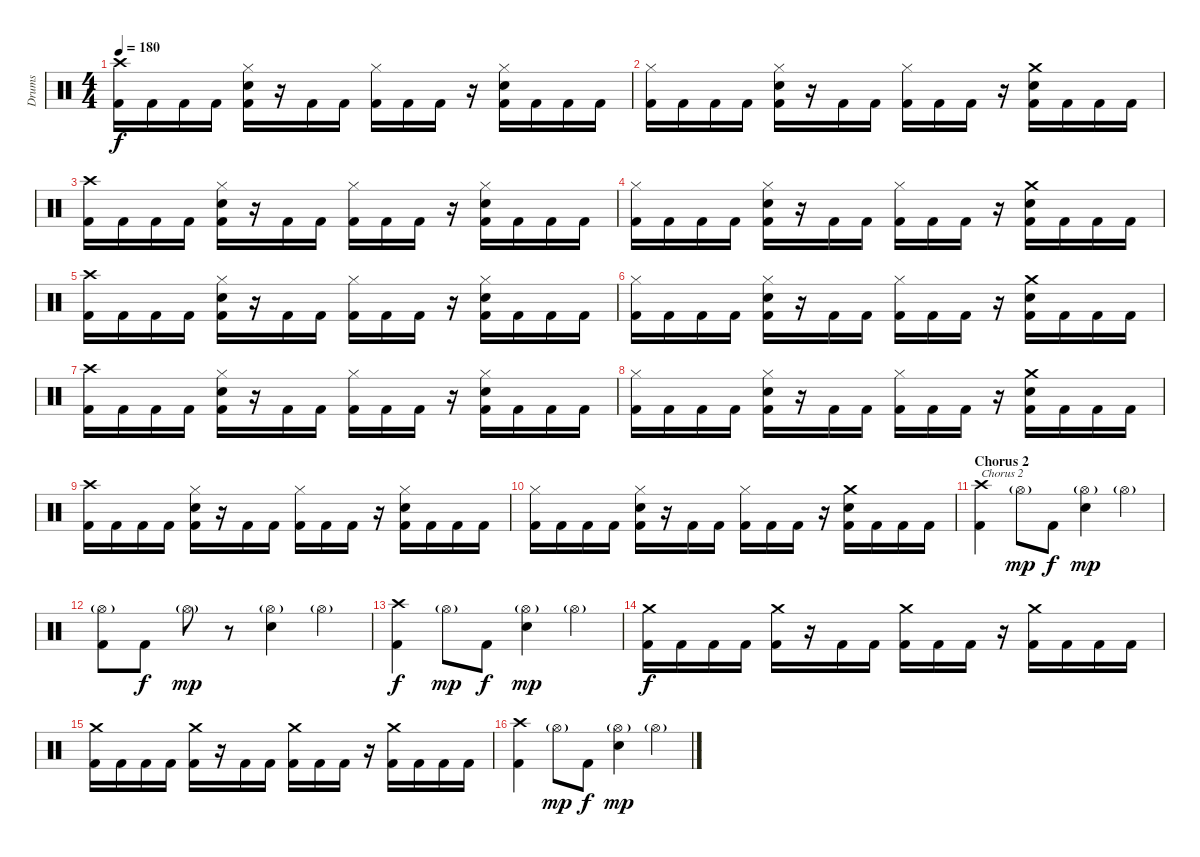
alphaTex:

\track ("Drums" "Drums") {instrument percussion}
\staff {score}
\articulation defaults
\ts (4 4)
\tempo 180
\clef neutral
\ks c
("Kick (hit) 2" "Crash high (hit)").16{dy f} "Kick (hit) 2".16 "Kick (hit) 2".16 "Kick (hit) 2".16 ("Kick (hit) 2" "Snare (hit) 2" "Hi-Hat (closed)").16 r.16 "Kick (hit) 2".16 "Kick (hit) 2".16 ("Kick (hit) 2" "Hi-Hat (closed)").16 "Kick (hit) 2".16 "Kick (hit) 2".16 r.16 ("Kick (hit) 2" "Snare (hit) 2" "Hi-Hat (closed)").16 "Kick (hit) 2".16 "Kick (hit) 2".16 "Kick (hit) 2".16 |
("Kick (hit) 2" "Hi-Hat (closed)").16 "Kick (hit) 2".16 "Kick (hit) 2".16 "Kick (hit) 2".16 ("Kick (hit) 2" "Snare (hit) 2" "Hi-Hat (closed)").16 r.16 "Kick (hit) 2".16 "Kick (hit) 2".16 ("Kick (hit) 2" "Hi-Hat (closed)").16 "Kick (hit) 2".16 "Kick (hit) 2".16 r.16 ("Kick (hit) 2" "Snare (hit) 2" "Crash medium (hit)").16 "Kick (hit) 2".16 "Kick (hit) 2".16 "Kick (hit) 2".16 |
("Kick (hit) 2" "Crash high (hit)").16 "Kick (hit) 2".16 "Kick (hit) 2".16 "Kick (hit) 2".16 ("Kick (hit) 2" "Snare (hit) 2" "Hi-Hat (closed)").16 r.16 "Kick (hit) 2".16 "Kick (hit) 2".16 ("Kick (hit) 2" "Hi-Hat (closed)").16 "Kick (hit) 2".16 "Kick (hit) 2".16 r.16 ("Kick (hit) 2" "Snare (hit) 2" "Hi-Hat (closed)").16 "Kick (hit) 2".16 "Kick (hit) 2".16 "Kick (hit) 2".16 |
("Kick (hit) 2" "Hi-Hat (closed)").16 "Kick (hit) 2".16 "Kick (hit) 2".16 "Kick (hit) 2".16 ("Kick (hit) 2" "Snare (hit) 2" "Hi-Hat (closed)").16 r.16 "Kick (hit) 2".16 "Kick (hit) 2".16 ("Kick (hit) 2" "Hi-Hat (closed)").16 "Kick (hit) 2".16 "Kick (hit) 2".16 r.16 ("Kick (hit) 2" "Snare (hit) 2" "Crash medium (hit)").16 "Kick (hit) 2".16 "Kick (hit) 2".16 "Kick (hit) 2".16 |
("Kick (hit) 2" "Crash high (hit)").16 "Kick (hit) 2".16 "Kick (hit) 2".16 "Kick (hit) 2".16 ("Kick (hit) 2" "Snare (hit) 2" "Hi-Hat (closed)").16 r.16 "Kick (hit) 2".16 "Kick (hit) 2".16 ("Kick (hit) 2" "Hi-Hat (closed)").16 "Kick (hit) 2".16 "Kick (hit) 2".16 r.16 ("Kick (hit) 2" "Snare (hit) 2" "Hi-Hat (closed)").16 "Kick (hit) 2".16 "Kick (hit) 2".16 "Kick (hit) 2".16 |
("Kick (hit) 2" "Hi-Hat (closed)").16 "Kick (hit) 2".16 "Kick (hit) 2".16 "Kick (hit) 2".16 ("Kick (hit) 2" "Snare (hit) 2" "Hi-Hat (closed)").16 r.16 "Kick (hit) 2".16 "Kick (hit) 2".16 ("Kick (hit) 2" "Hi-Hat (closed)").16 "Kick (hit) 2".16 "Kick (hit) 2".16 r.16 ("Kick (hit) 2" "Snare (hit) 2" "Crash medium (hit)").16 "Kick (hit) 2".16 "Kick (hit) 2".16 "Kick (hit) 2".16 |
("Kick (hit) 2" "Crash high (hit)").16 "Kick (hit) 2".16 "Kick (hit) 2".16 "Kick (hit) 2".16 ("Kick (hit) 2" "Snare (hit) 2" "Hi-Hat (closed)").16 r.16 "Kick (hit) 2".16 "Kick (hit) 2".16 ("Kick (hit) 2" "Hi-Hat (closed)").16 "Kick (hit) 2".16 "Kick (hit) 2".16 r.16 ("Kick (hit) 2" "Snare (hit) 2" "Hi-Hat (closed)").16 "Kick (hit) 2".16 "Kick (hit) 2".16 "Kick (hit) 2".16 |
("Kick (hit) 2" "Hi-Hat (closed)").16 "Kick (hit) 2".16 "Kick (hit) 2".16 "Kick (hit) 2".16 ("Kick (hit) 2" "Snare (hit) 2" "Hi-Hat (closed)").16 r.16 "Kick (hit) 2".16 "Kick (hit) 2".16 ("Kick (hit) 2" "Hi-Hat (closed)").16 "Kick (hit) 2".16 "Kick (hit) 2".16 r.16 ("Kick (hit) 2" "Snare (hit) 2" "Crash medium (hit)").16 "Kick (hit) 2".16 "Kick (hit) 2".16 "Kick (hit) 2".16 |
("Kick (hit) 2" "Crash high (hit)").16 "Kick (hit) 2".16 "Kick (hit) 2".16 "Kick (hit) 2".16 ("Kick (hit) 2" "Snare (hit) 2" "Hi-Hat (closed)").16 r.16 "Kick (hit) 2".16 "Kick (hit) 2".16 ("Kick (hit) 2" "Hi-Hat (closed)").16 "Kick (hit) 2".16 "Kick (hit) 2".16 r.16 ("Kick (hit) 2" "Snare (hit) 2" "Hi-Hat (closed)").16 "Kick (hit) 2".16 "Kick (hit) 2".16 "Kick (hit) 2".16 |
("Kick (hit) 2" "Hi-Hat (closed)").16 "Kick (hit) 2".16 "Kick (hit) 2".16 "Kick (hit) 2".16 ("Kick (hit) 2" "Snare (hit) 2" "Hi-Hat (closed)").16 r.16 "Kick (hit) 2".16 "Kick (hit) 2".16 ("Kick (hit) 2" "Hi-Hat (closed)").16 "Kick (hit) 2".16 "Kick (hit) 2".16 r.16 ("Kick (hit) 2" "Snare (hit) 2" "Crash medium (hit)").16 "Kick (hit) 2".16 "Kick (hit) 2".16 "Kick (hit) 2".16 |
\section ("" "Chorus 2")
("Kick (hit) 2" "Crash high (hit)").4{txt "Chorus 2"} "Hi-Hat (open)"{g}.8{dy mp} "Kick (hit) 2".8{dy f} ("Hi-Hat (open)"{g} "Electric Snare (hit)").4{dy mp} "Hi-Hat (open)"{g}.4 |
("Kick (hit) 2" "Hi-Hat (open)"{g}).8 "Kick (hit) 2".8{dy f} "Hi-Hat (open)"{g}.8{dy mp} r.8 ("Hi-Hat (open)"{g} "Electric Snare (hit)").4 "Hi-Hat (open)"{g}.4 |
("Kick (hit) 2" "Crash high (hit)").4{dy f} "Hi-Hat (open)"{g}.8{dy mp} "Kick (hit) 2".8{dy f} ("Hi-Hat (open)"{g} "Electric Snare (hit)").4{dy mp} "Hi-Hat (open)"{g}.4 |
("Kick (hit) 2" "Crash medium (hit)").16{dy f} "Kick (hit) 2".16 "Kick (hit) 2".16 "Kick (hit) 2".16 ("Kick (hit) 2" "Crash medium (hit)").16 r.16 "Kick (hit) 2".16 "Kick (hit) 2".16 ("Kick (hit) 2" "Crash medium (hit)").16 "Kick (hit) 2".16 "Kick (hit) 2".16 r.16 ("Kick (hit) 2" "Crash medium (hit)").16 "Kick (hit) 2".16 "Kick (hit) 2".16 "Kick (hit) 2".16 |
("Kick (hit) 2" "Crash medium (hit)").16 "Kick (hit) 2".16 "Kick (hit) 2".16 "Kick (hit) 2".16 ("Kick (hit) 2" "Crash medium (hit)").16 r.16 "Kick (hit) 2".16 "Kick (hit) 2".16 ("Kick (hit) 2" "Crash medium (hit)").16 "Kick (hit) 2".16 "Kick (hit) 2".16 r.16 ("Kick (hit) 2" "Crash medium (hit)").16 "Kick (hit) 2".16 "Kick (hit) 2".16 "Kick (hit) 2".16 |
("Kick (hit) 2" "Crash high (hit)").4 "Hi-Hat (open)"{g}.8{dy mp} "Kick (hit) 2".8{dy f} ("Hi-Hat (open)"{g} "Electric Snare (hit)").4{dy mp} "Hi-Hat (open)"{g}.4
